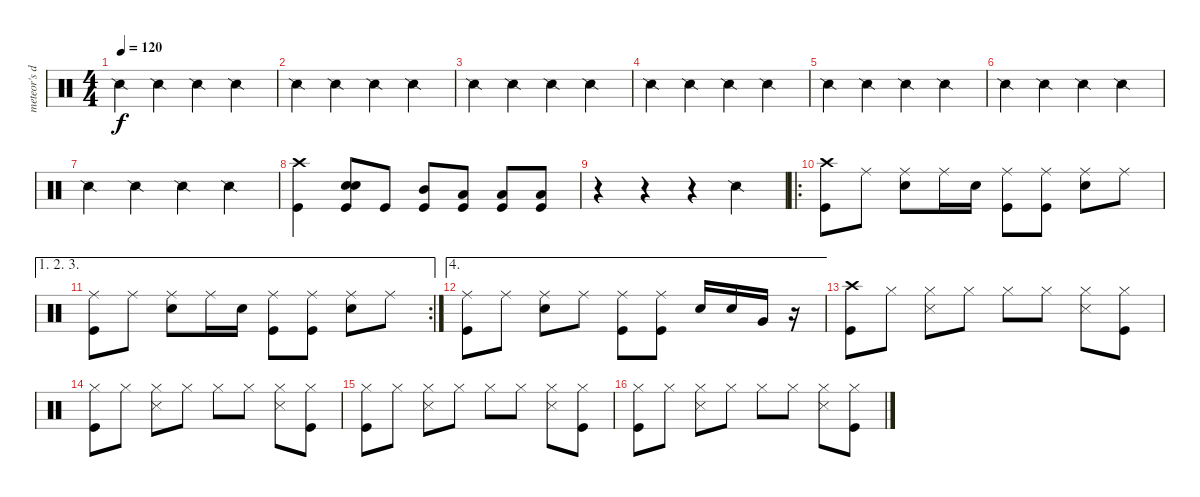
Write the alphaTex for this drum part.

\track ("meteor's drum:)" "meteor's d") {instrument percussion}
\staff {score}
\articulation defaults
\ts (4 4)
\tempo 120
\clef neutral
\ks c "Snare (side stick) 2".4{dy f} "Snare (side stick) 2".4 "Snare (side stick) 2".4 "Snare (side stick) 2".4
|
"Snare (side stick) 2".4 "Snare (side stick) 2".4 "Snare (side stick) 2".4 "Snare (side stick) 2".4 |
"Snare (side stick) 2".4 "Snare (side stick) 2".4 "Snare (side stick) 2".4 "Snare (side stick) 2".4 |
"Snare (side stick) 2".4 "Snare (side stick) 2".4 "Snare (side stick) 2".4 "Snare (side stick) 2".4 |
"Snare (side stick) 2".4 "Snare (side stick) 2".4 "Snare (side stick) 2".4 "Snare (side stick) 2".4 |
"Snare (side stick) 2".4 "Snare (side stick) 2".4 "Snare (side stick) 2".4 "Snare (side stick) 2".4 |
"Snare (side stick) 2".4 "Snare (side stick) 2".4 "Snare (side stick) 2".4 "Snare (side stick) 2".4 |
("Kick (hit)" "Crash high (hit)").4 ("Kick (hit)" "Snare (hit) 2" "Snare (hit) 2").8 "Kick (hit)".8 ("Kick (hit)" "Mid Tom (hit)").8 ("Kick (hit)" "Low Floor Tom (hit)").8 ("Kick (hit)" "Low Floor Tom (hit)").8 ("Kick (hit)" "Low Floor Tom (hit)").8 |
r.4 r.4 r.4 "Snare (side stick) 2".4 |
\ro
("Crash high (hit)" "Kick (hit)").8 "Ride (middle)".8 ("Ride (middle)" "Snare (hit) 2").8 "Ride (middle)".16 "Snare (hit) 2".16 ("Ride (middle)" "Kick (hit)").8 ("Ride (middle)" "Kick (hit)").8 ("Ride (middle)" "Snare (hit) 2").8 "Ride (middle)".8 |
\ae (1 2 3)
\rc 2
("Ride (middle)" "Kick (hit)").8 "Ride (middle)".8 ("Ride (middle)" "Snare (hit) 2").8 "Ride (middle)".16 "Snare (hit) 2".16 ("Ride (middle)" "Kick (hit)").8 ("Ride (middle)" "Kick (hit)").8 ("Ride (middle)" "Snare (hit) 2").8 "Ride (middle)".8 |
\ae 4
("Ride (middle)" "Kick (hit)").8 "Ride (middle)".8 ("Ride (middle)" "Snare (hit) 2").8 "Ride (middle)".8 ("Ride (middle)" "Kick (hit)").8 ("Ride (middle)" "Kick (hit)").8 "Snare (hit) 2".16 "Snare (hit) 2".16 "Very Low Tom (hit)".16 r.16 |
("Crash high (hit)" "Kick (hit)").8 "Hi-Hat (closed)".8 ("Snare (side stick) 3" "Hi-Hat (closed)").8 "Hi-Hat (closed)".8 "Hi-Hat (closed)".8 "Hi-Hat (closed)".8 ("Snare (side stick) 3" "Hi-Hat (closed)").8 ("Kick (hit)" "Hi-Hat (closed)").8 |
("Hi-Hat (closed)" "Kick (hit)").8 "Hi-Hat (closed)".8 ("Snare (side stick) 3" "Hi-Hat (closed)").8 "Hi-Hat (closed)".8 "Hi-Hat (closed)".8 "Hi-Hat (closed)".8 ("Snare (side stick) 3" "Hi-Hat (closed)").8 ("Kick (hit)" "Hi-Hat (closed)").8 |
("Hi-Hat (closed)" "Kick (hit)").8 "Hi-Hat (closed)".8 ("Snare (side stick) 3" "Hi-Hat (closed)").8 "Hi-Hat (closed)".8 "Hi-Hat (closed)".8 "Hi-Hat (closed)".8 ("Snare (side stick) 3" "Hi-Hat (closed)").8 ("Kick (hit)" "Hi-Hat (closed)").8 |
("Hi-Hat (closed)" "Kick (hit)").8 "Hi-Hat (closed)".8 ("Snare (side stick) 3" "Hi-Hat (closed)").8 "Hi-Hat (closed)".8 "Hi-Hat (closed)".8 "Hi-Hat (closed)".8 ("Snare (side stick) 3" "Hi-Hat (closed)").8 ("Kick (hit)" "Hi-Hat (closed)").8
